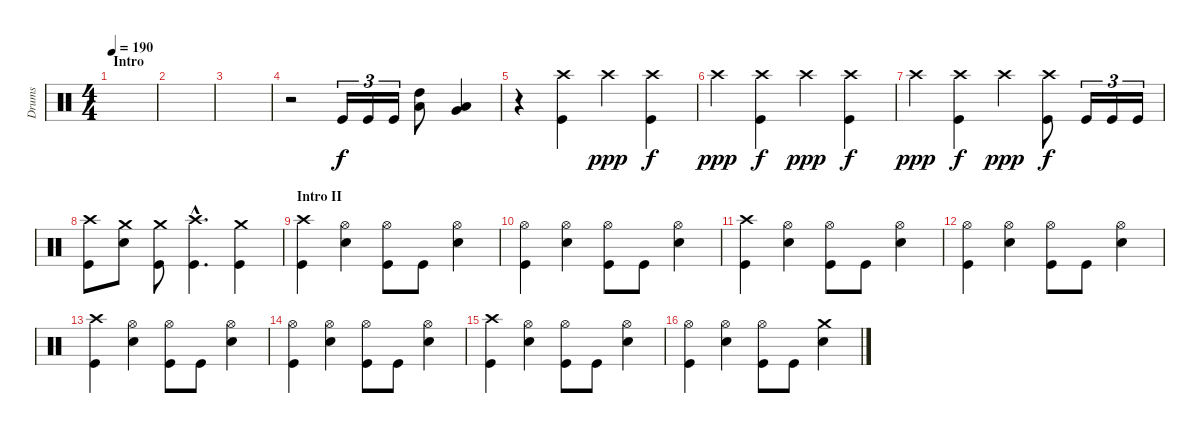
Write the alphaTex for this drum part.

\track ("Drums" "Drums") {instrument percussion}
\staff {score}
\articulation defaults
\ts (4 4)
\section ("" "Intro")
\tempo 190
\clef neutral
\ks c
|
|
|
r.2 "Kick (hit)".16{tu (3 2)} "Kick (hit)".16{tu (3 2)} "Kick (hit)".16{tu (3 2)} ("Low Tom (hit)" "High Tom (hit)").8 ("Very Low Tom (hit)" "Low Tom (hit)").4 |
r.4 ("Crash high (hit)" "Kick (hit)").4 "Crash high (hit)".4{dy ppp} ("Crash high (hit)" "Kick (hit)").4{dy f} |
"Crash high (hit)".4{dy ppp} ("Crash high (hit)" "Kick (hit)").4{dy f} "Crash high (hit)".4{dy ppp} ("Crash high (hit)" "Kick (hit)").4{dy f} |
"Crash high (hit)".4{dy ppp} ("Crash high (hit)" "Kick (hit)").4{dy f} "Crash high (hit)".4{dy ppp} ("Crash high (hit)" "Kick (hit)").8{dy f} "Kick (hit)".16{tu (3 2)} "Kick (hit)".16{tu (3 2)} "Kick (hit)".16{tu (3 2)} |
("Crash high (hit)" "Kick (hit)").8 ("Crash medium (hit)" "Snare (hit) 2").8 ("Crash medium (hit)" "Kick (hit)").8 ("Crash high (hit)"{hac} "Kick (hit)"{hac}).4{d} ("Crash medium (hit)" "Kick (hit)").4 |
\section ("" "Intro II")
("Crash high (hit)" "Kick (hit)").4 ("Hi-Hat (open)" "Snare (hit) 2").4 ("Hi-Hat (open)" "Kick (hit)").8 "Kick (hit)".8 ("Hi-Hat (open)" "Snare (hit) 2").4 |
("Hi-Hat (open)" "Kick (hit)").4 ("Hi-Hat (open)" "Snare (hit) 2").4 ("Hi-Hat (open)" "Kick (hit)").8 "Kick (hit)".8 ("Hi-Hat (open)" "Snare (hit) 2").4 |
("Crash high (hit)" "Kick (hit)").4 ("Hi-Hat (open)" "Snare (hit) 2").4 ("Hi-Hat (open)" "Kick (hit)").8 "Kick (hit)".8 ("Hi-Hat (open)" "Snare (hit) 2").4 |
("Hi-Hat (open)" "Kick (hit)").4 ("Hi-Hat (open)" "Snare (hit) 2").4 ("Hi-Hat (open)" "Kick (hit)").8 "Kick (hit)".8 ("Hi-Hat (open)" "Snare (hit) 2").4 |
("Crash high (hit)" "Kick (hit)").4 ("Hi-Hat (open)" "Snare (hit) 2").4 ("Hi-Hat (open)" "Kick (hit)").8 "Kick (hit)".8 ("Hi-Hat (open)" "Snare (hit) 2").4 |
("Hi-Hat (open)" "Kick (hit)").4 ("Hi-Hat (open)" "Snare (hit) 2").4 ("Hi-Hat (open)" "Kick (hit)").8 "Kick (hit)".8 ("Hi-Hat (open)" "Snare (hit) 2").4 |
("Crash high (hit)" "Kick (hit)").4 ("Hi-Hat (open)" "Snare (hit) 2").4 ("Hi-Hat (open)" "Kick (hit)").8 "Kick (hit)".8 ("Hi-Hat (open)" "Snare (hit) 2").4 |
("Hi-Hat (open)" "Kick (hit)").4 ("Hi-Hat (open)" "Snare (hit) 2").4 ("Hi-Hat (open)" "Kick (hit)").8 "Kick (hit)".8 ("Crash medium (hit)" "Snare (hit) 2").4
